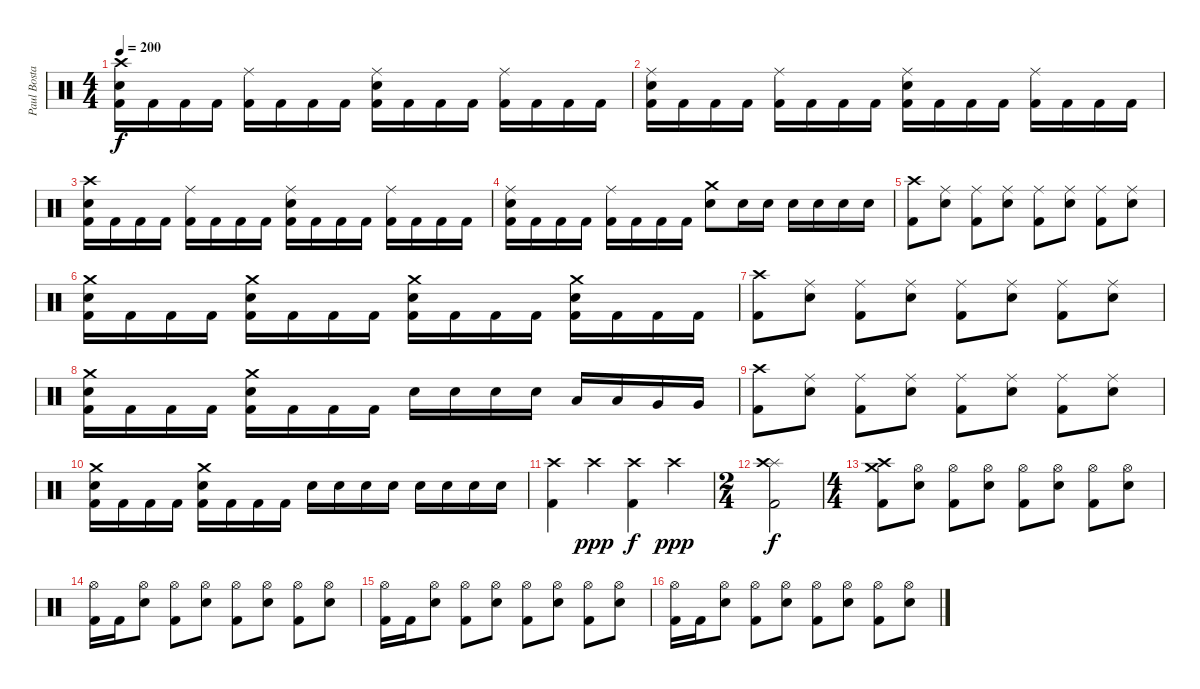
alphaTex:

\track ("Paul Bostaph" "Paul Bosta") {instrument percussion}
\staff {score}
\articulation defaults
\ts (4 4)
\tempo 200
\clef neutral
\ks c
("Electric Snare (hit)" "Kick (hit) 2" "Crash high (hit)").16{dy f} "Kick (hit) 2".16 "Kick (hit) 2".16 "Kick (hit) 2".16 ("Kick (hit) 2" "Ride (middle)").16 "Kick (hit) 2".16 "Kick (hit) 2".16 "Kick (hit) 2".16 ("Electric Snare (hit)" "Kick (hit) 2" "Ride (middle)").16 "Kick (hit) 2".16 "Kick (hit) 2".16 "Kick (hit) 2".16 ("Kick (hit) 2" "Ride (middle)").16 "Kick (hit) 2".16 "Kick (hit) 2".16 "Kick (hit) 2".16 |
("Electric Snare (hit)" "Kick (hit) 2" "Ride (middle)").16 "Kick (hit) 2".16 "Kick (hit) 2".16 "Kick (hit) 2".16 ("Kick (hit) 2" "Ride (middle)").16 "Kick (hit) 2".16 "Kick (hit) 2".16 "Kick (hit) 2".16 ("Electric Snare (hit)" "Kick (hit) 2" "Ride (middle)").16 "Kick (hit) 2".16 "Kick (hit) 2".16 "Kick (hit) 2".16 ("Kick (hit) 2" "Ride (middle)").16 "Kick (hit) 2".16 "Kick (hit) 2".16 "Kick (hit) 2".16 |
("Electric Snare (hit)" "Kick (hit) 2" "Crash high (hit)").16 "Kick (hit) 2".16 "Kick (hit) 2".16 "Kick (hit) 2".16 ("Kick (hit) 2" "Ride (middle)").16 "Kick (hit) 2".16 "Kick (hit) 2".16 "Kick (hit) 2".16 ("Electric Snare (hit)" "Kick (hit) 2" "Ride (middle)").16 "Kick (hit) 2".16 "Kick (hit) 2".16 "Kick (hit) 2".16 ("Kick (hit) 2" "Ride (middle)").16 "Kick (hit) 2".16 "Kick (hit) 2".16 "Kick (hit) 2".16 |
("Electric Snare (hit)" "Kick (hit) 2" "Ride (middle)").16 "Kick (hit) 2".16 "Kick (hit) 2".16 "Kick (hit) 2".16 ("Kick (hit) 2" "Ride (middle)").16 "Kick (hit) 2".16 "Kick (hit) 2".16 "Kick (hit) 2".16 ("Electric Snare (hit)" "Crash medium (hit)").8 "Electric Snare (hit)".16 "Electric Snare (hit)".16 "Electric Snare (hit)".16 "Electric Snare (hit)".16 "Electric Snare (hit)".16 "Electric Snare (hit)".16 |
("Crash high (hit)" "Kick (hit) 2").8 ("Ride (middle)" "Electric Snare (hit)").8 ("Ride (middle)" "Kick (hit) 2").8 ("Ride (middle)" "Electric Snare (hit)").8 ("Ride (middle)" "Kick (hit) 2").8 ("Ride (middle)" "Electric Snare (hit)").8 ("Ride (middle)" "Kick (hit) 2").8 ("Ride (middle)" "Electric Snare (hit)").8 |
("Electric Snare (hit)" "Kick (hit) 2" "Crash medium (hit)").16 "Kick (hit) 2".16 "Kick (hit) 2".16 "Kick (hit) 2".16 ("Kick (hit) 2" "Electric Snare (hit)" "Crash medium (hit)").16 "Kick (hit) 2".16 "Kick (hit) 2".16 "Kick (hit) 2".16 ("Electric Snare (hit)" "Kick (hit) 2" "Crash medium (hit)").16 "Kick (hit) 2".16 "Kick (hit) 2".16 "Kick (hit) 2".16 ("Kick (hit) 2" "Electric Snare (hit)" "Crash medium (hit)").16 "Kick (hit) 2".16 "Kick (hit) 2".16 "Kick (hit) 2".16 |
("Crash high (hit)" "Kick (hit) 2").8 ("Ride (middle)" "Electric Snare (hit)").8 ("Ride (middle)" "Kick (hit) 2").8 ("Ride (middle)" "Electric Snare (hit)").8 ("Ride (middle)" "Kick (hit) 2").8 ("Ride (middle)" "Electric Snare (hit)").8 ("Ride (middle)" "Kick (hit) 2").8 ("Ride (middle)" "Electric Snare (hit)").8 |
("Electric Snare (hit)" "Kick (hit) 2" "Crash medium (hit)").16 "Kick (hit) 2".16 "Kick (hit) 2".16 "Kick (hit) 2".16 ("Kick (hit) 2" "Electric Snare (hit)" "Crash medium (hit)").16 "Kick (hit) 2".16 "Kick (hit) 2".16 "Kick (hit) 2".16 "Electric Snare (hit)".16 "Electric Snare (hit)".16 "Electric Snare (hit)".16 "Electric Snare (hit)".16 "Low Tom (hit)".16 "Low Tom (hit)".16 "Very Low Tom (hit)".16 "Very Low Tom (hit)".16 |
("Crash high (hit)" "Kick (hit) 2").8 ("Ride (middle)" "Electric Snare (hit)").8 ("Ride (middle)" "Kick (hit) 2").8 ("Ride (middle)" "Electric Snare (hit)").8 ("Ride (middle)" "Kick (hit) 2").8 ("Ride (middle)" "Electric Snare (hit)").8 ("Ride (middle)" "Kick (hit) 2").8 ("Ride (middle)" "Electric Snare (hit)").8 |
("Electric Snare (hit)" "Kick (hit) 2" "Crash medium (hit)").16 "Kick (hit) 2".16 "Kick (hit) 2".16 "Kick (hit) 2".16 ("Kick (hit) 2" "Electric Snare (hit)" "Crash medium (hit)").16 "Kick (hit) 2".16 "Kick (hit) 2".16 "Kick (hit) 2".16 "Electric Snare (hit)".16 "Electric Snare (hit)".16 "Electric Snare (hit)".16 "Electric Snare (hit)".16 "Electric Snare (hit)".16 "Electric Snare (hit)".16 "Electric Snare (hit)".16 "Electric Snare (hit)".16 |
("Crash high (hit)" "Kick (hit) 2").4 "Crash high (hit)".4{dy ppp} ("Crash high (hit)" "Kick (hit) 2").4{dy f} "Crash high (hit)".4{dy ppp} |
\ts (2 4)
("Splash (hit)" "Crash high (hit)" "Kick (hit) 2").2{dy f} |
\ts (4 4)
("Crash medium (hit)" "Crash high (hit)" "Kick (hit) 2").8 ("Hi-Hat (open)" "Electric Snare (hit)").8 ("Hi-Hat (open)" "Kick (hit) 2").8 ("Hi-Hat (open)" "Electric Snare (hit)").8 ("Hi-Hat (open)" "Kick (hit) 2").8 ("Hi-Hat (open)" "Electric Snare (hit)").8 ("Hi-Hat (open)" "Kick (hit) 2").8 ("Hi-Hat (open)" "Electric Snare (hit)").8 |
("Hi-Hat (open)" "Kick (hit) 2").16 "Kick (hit) 2".16 ("Hi-Hat (open)" "Electric Snare (hit)").8 ("Hi-Hat (open)" "Kick (hit) 2").8 ("Hi-Hat (open)" "Electric Snare (hit)").8 ("Hi-Hat (open)" "Kick (hit) 2").8 ("Hi-Hat (open)" "Electric Snare (hit)").8 ("Hi-Hat (open)" "Kick (hit) 2").8 ("Hi-Hat (open)" "Electric Snare (hit)").8 |
("Hi-Hat (open)" "Kick (hit) 2").16 "Kick (hit) 2".16 ("Hi-Hat (open)" "Electric Snare (hit)").8 ("Hi-Hat (open)" "Kick (hit) 2").8 ("Hi-Hat (open)" "Electric Snare (hit)").8 ("Hi-Hat (open)" "Kick (hit) 2").8 ("Hi-Hat (open)" "Electric Snare (hit)").8 ("Hi-Hat (open)" "Kick (hit) 2").8 ("Hi-Hat (open)" "Electric Snare (hit)").8 |
("Hi-Hat (open)" "Kick (hit) 2").16 "Kick (hit) 2".16 ("Hi-Hat (open)" "Electric Snare (hit)").8 ("Hi-Hat (open)" "Kick (hit) 2").8 ("Hi-Hat (open)" "Electric Snare (hit)").8 ("Hi-Hat (open)" "Kick (hit) 2").8 ("Hi-Hat (open)" "Electric Snare (hit)").8 ("Hi-Hat (open)" "Kick (hit) 2").8 ("Hi-Hat (open)" "Electric Snare (hit)").8
